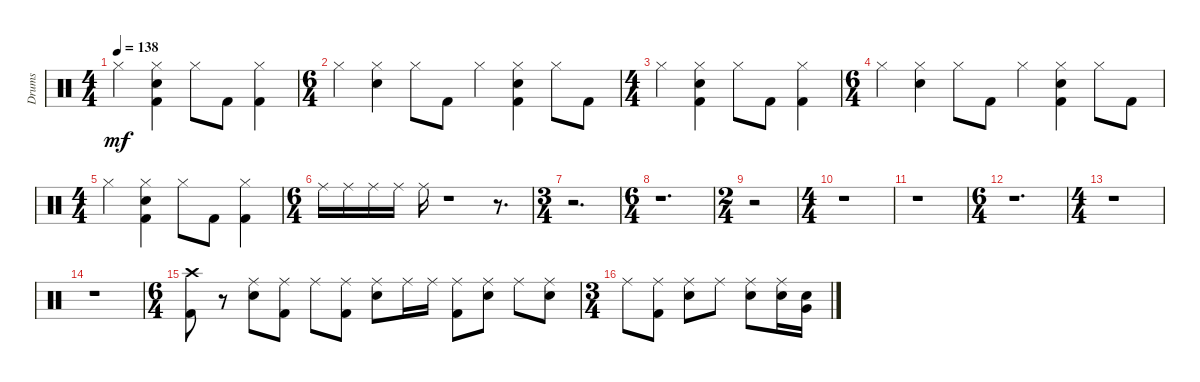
\track ("Drums" "Drums") {instrument percussion}
\staff {score}
\articulation defaults
\ts (4 4)
\tempo 138
\clef neutral
\ks c "Hi-Hat (closed)".4{dy mf}
("Kick (hit) 2" "Snare (hit) 2" "Hi-Hat (closed)").4 "Hi-Hat (closed)".8 "Kick (hit) 2".8 ("Kick (hit) 2" "Hi-Hat (closed)").4 |
\ts (6 4)
"Hi-Hat (closed)".4 ("Snare (hit) 2" "Hi-Hat (closed)").4 "Hi-Hat (closed)".8 "Kick (hit) 2".8 "Hi-Hat (closed)".4 ("Kick (hit) 2" "Snare (hit) 2" "Hi-Hat (closed)").4 "Hi-Hat (closed)".8 "Kick (hit) 2".8 |
\ts (4 4)
"Hi-Hat (closed)".4 ("Kick (hit) 2" "Snare (hit) 2" "Hi-Hat (closed)").4 "Hi-Hat (closed)".8 "Kick (hit) 2".8 ("Kick (hit) 2" "Hi-Hat (closed)").4 |
\ts (6 4)
"Hi-Hat (closed)".4 ("Snare (hit) 2" "Hi-Hat (closed)").4 "Hi-Hat (closed)".8 "Kick (hit) 2".8 "Hi-Hat (closed)".4 ("Kick (hit) 2" "Snare (hit) 2" "Hi-Hat (closed)").4 "Hi-Hat (closed)".8 "Kick (hit) 2".8 |
\ts (4 4)
"Hi-Hat (closed)".4 ("Kick (hit) 2" "Snare (hit) 2" "Hi-Hat (closed)").4 "Hi-Hat (closed)".8 "Kick (hit) 2".8 ("Kick (hit) 2" "Hi-Hat (closed)").4 |
\ts (6 4)
"Ride (middle)".16 "Ride (middle)".16 "Ride (middle)".16 "Ride (middle)".16 "Ride (middle)".16 r.1 r.8{d} |
\ts (3 4)
r.2{d} |
\ts (6 4)
r.1{d} |
\ts (2 4)
r.2 |
\ts (4 4)
r.1 |
r.1 |
\ts (6 4)
r.1{d} |
\ts (4 4)
r.1 |
r.1 |
\ts (6 4)
("Kick (hit) 2" "Crash high (hit)").8 r.8 ("Snare (hit) 2" "Ride (middle)").8 ("Kick (hit) 2" "Ride (middle)").8 "Ride (middle)".8 ("Kick (hit) 2" "Ride (middle)").8 ("Snare (hit) 2" "Ride (middle)").8 "Ride (middle)".16 "Ride (middle)".16 ("Kick (hit) 2" "Ride (middle)").8 ("Snare (hit) 2" "Ride (middle)").8 "Ride (middle)".8 ("Snare (hit) 2" "Ride (middle)").8 |
\ts (3 4)
"Ride (middle)".8 ("Kick (hit) 2" "Ride (middle)").8 ("Snare (hit) 2" "Ride (middle)").8 "Ride (middle)".8 ("Snare (hit) 2" "Ride (middle)").8 ("Snare (hit) 2" "Ride (middle)").16 ("Snare (hit) 2" "Very Low Tom (hit)").16
